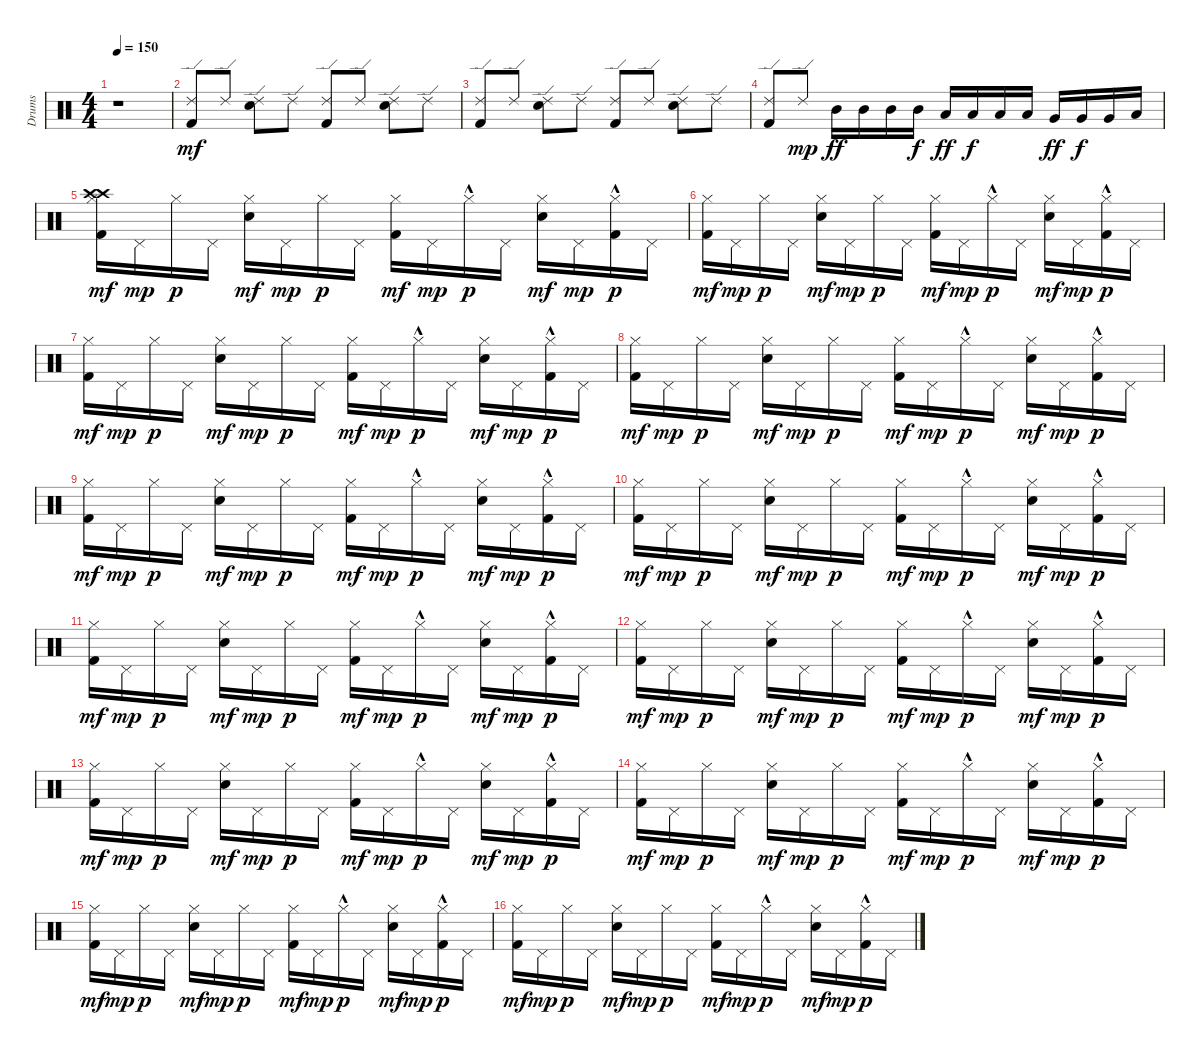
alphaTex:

\track ("Drums" "Drums") {instrument percussion}
\staff {score}
\articulation defaults
\ts (4 4)
\tempo 150
\clef neutral
\ks c
r.1{dy mf} |
("Kick (hit) 2" "Ride (edge) 2").8 "Ride (edge) 2".8 ("Snare (hit) 2" "Ride (edge) 2").8 "Ride (edge) 2".8 ("Kick (hit) 2" "Ride (edge) 2").8 "Ride (edge) 2".8 ("Snare (hit) 2" "Ride (edge) 2").8 "Ride (edge) 2".8 |
("Kick (hit) 2" "Ride (edge) 2").8 "Ride (edge) 2".8 ("Snare (hit) 2" "Ride (edge) 2").8 "Ride (edge) 2".8 ("Kick (hit) 2" "Ride (edge) 2").8 "Ride (edge) 2".8 ("Snare (hit) 2" "Ride (edge) 2").8 "Ride (edge) 2".8 |
("Kick (hit) 2" "Ride (edge) 2").8 "Ride (edge) 2".8{dy mp} "Mid Tom (hit)".16{dy ff} "Mid Tom (hit)".16 "Mid Tom (hit)".16 "Mid Tom (hit)".16{dy f} "Low Tom (hit)".16{dy ff} "Low Tom (hit)".16{dy f} "Low Tom (hit)".16 "Low Tom (hit)".16 "Very Low Tom (hit)".16{dy ff} "Very Low Tom (hit)".16{dy f} "Very Low Tom (hit)".16 "Low Floor Tom (hit)".16 |
("Kick (hit) 2" "Hi-Hat (closed)" "Crash high (hit)" "Crash high (hit)").16{dy mf} "Pedal Hi-Hat (hit)".16{dy mp} "Hi-Hat (closed)".16{dy p} "Pedal Hi-Hat (hit)".16 ("Snare (hit) 2" "Hi-Hat (closed)").16{dy mf} "Pedal Hi-Hat (hit)".16{dy mp} "Hi-Hat (closed)".16{dy p} "Pedal Hi-Hat (hit)".16 ("Kick (hit) 2" "Hi-Hat (closed)").16{dy mf} "Pedal Hi-Hat (hit)".16{dy mp} "Hi-Hat (closed)"{hac}.16{dy p} "Pedal Hi-Hat (hit)".16 ("Snare (hit) 2" "Hi-Hat (closed)").16{dy mf} "Pedal Hi-Hat (hit)".16{dy mp} ("Kick (hit) 2" "Hi-Hat (closed)"{hac}).16{dy p} "Pedal Hi-Hat (hit)".16 |
("Kick (hit) 2" "Hi-Hat (closed)").16{dy mf} "Pedal Hi-Hat (hit)".16{dy mp} "Hi-Hat (closed)".16{dy p} "Pedal Hi-Hat (hit)".16 ("Snare (hit) 2" "Hi-Hat (closed)").16{dy mf} "Pedal Hi-Hat (hit)".16{dy mp} "Hi-Hat (closed)".16{dy p} "Pedal Hi-Hat (hit)".16 ("Kick (hit) 2" "Hi-Hat (closed)").16{dy mf} "Pedal Hi-Hat (hit)".16{dy mp} "Hi-Hat (closed)"{hac}.16{dy p} "Pedal Hi-Hat (hit)".16 ("Snare (hit) 2" "Hi-Hat (closed)").16{dy mf} "Pedal Hi-Hat (hit)".16{dy mp} ("Kick (hit) 2" "Hi-Hat (closed)"{hac}).16{dy p} "Pedal Hi-Hat (hit)".16 |
("Kick (hit) 2" "Hi-Hat (closed)").16{dy mf} "Pedal Hi-Hat (hit)".16{dy mp} "Hi-Hat (closed)".16{dy p} "Pedal Hi-Hat (hit)".16 ("Snare (hit) 2" "Hi-Hat (closed)").16{dy mf} "Pedal Hi-Hat (hit)".16{dy mp} "Hi-Hat (closed)".16{dy p} "Pedal Hi-Hat (hit)".16 ("Kick (hit) 2" "Hi-Hat (closed)").16{dy mf} "Pedal Hi-Hat (hit)".16{dy mp} "Hi-Hat (closed)"{hac}.16{dy p} "Pedal Hi-Hat (hit)".16 ("Snare (hit) 2" "Hi-Hat (closed)").16{dy mf} "Pedal Hi-Hat (hit)".16{dy mp} ("Kick (hit) 2" "Hi-Hat (closed)"{hac}).16{dy p} "Pedal Hi-Hat (hit)".16 |
("Kick (hit) 2" "Hi-Hat (closed)").16{dy mf} "Pedal Hi-Hat (hit)".16{dy mp} "Hi-Hat (closed)".16{dy p} "Pedal Hi-Hat (hit)".16 ("Snare (hit) 2" "Hi-Hat (closed)").16{dy mf} "Pedal Hi-Hat (hit)".16{dy mp} "Hi-Hat (closed)".16{dy p} "Pedal Hi-Hat (hit)".16 ("Kick (hit) 2" "Hi-Hat (closed)").16{dy mf} "Pedal Hi-Hat (hit)".16{dy mp} "Hi-Hat (closed)"{hac}.16{dy p} "Pedal Hi-Hat (hit)".16 ("Snare (hit) 2" "Hi-Hat (closed)").16{dy mf} "Pedal Hi-Hat (hit)".16{dy mp} ("Kick (hit) 2" "Hi-Hat (closed)"{hac}).16{dy p} "Pedal Hi-Hat (hit)".16 |
("Kick (hit) 2" "Hi-Hat (closed)").16{dy mf} "Pedal Hi-Hat (hit)".16{dy mp} "Hi-Hat (closed)".16{dy p} "Pedal Hi-Hat (hit)".16 ("Snare (hit) 2" "Hi-Hat (closed)").16{dy mf} "Pedal Hi-Hat (hit)".16{dy mp} "Hi-Hat (closed)".16{dy p} "Pedal Hi-Hat (hit)".16 ("Kick (hit) 2" "Hi-Hat (closed)").16{dy mf} "Pedal Hi-Hat (hit)".16{dy mp} "Hi-Hat (closed)"{hac}.16{dy p} "Pedal Hi-Hat (hit)".16 ("Snare (hit) 2" "Hi-Hat (closed)").16{dy mf} "Pedal Hi-Hat (hit)".16{dy mp} ("Kick (hit) 2" "Hi-Hat (closed)"{hac}).16{dy p} "Pedal Hi-Hat (hit)".16 |
("Kick (hit) 2" "Hi-Hat (closed)").16{dy mf} "Pedal Hi-Hat (hit)".16{dy mp} "Hi-Hat (closed)".16{dy p} "Pedal Hi-Hat (hit)".16 ("Snare (hit) 2" "Hi-Hat (closed)").16{dy mf} "Pedal Hi-Hat (hit)".16{dy mp} "Hi-Hat (closed)".16{dy p} "Pedal Hi-Hat (hit)".16 ("Kick (hit) 2" "Hi-Hat (closed)").16{dy mf} "Pedal Hi-Hat (hit)".16{dy mp} "Hi-Hat (closed)"{hac}.16{dy p} "Pedal Hi-Hat (hit)".16 ("Snare (hit) 2" "Hi-Hat (closed)").16{dy mf} "Pedal Hi-Hat (hit)".16{dy mp} ("Kick (hit) 2" "Hi-Hat (closed)"{hac}).16{dy p} "Pedal Hi-Hat (hit)".16 |
("Kick (hit) 2" "Hi-Hat (closed)").16{dy mf} "Pedal Hi-Hat (hit)".16{dy mp} "Hi-Hat (closed)".16{dy p} "Pedal Hi-Hat (hit)".16 ("Snare (hit) 2" "Hi-Hat (closed)").16{dy mf} "Pedal Hi-Hat (hit)".16{dy mp} "Hi-Hat (closed)".16{dy p} "Pedal Hi-Hat (hit)".16 ("Kick (hit) 2" "Hi-Hat (closed)").16{dy mf} "Pedal Hi-Hat (hit)".16{dy mp} "Hi-Hat (closed)"{hac}.16{dy p} "Pedal Hi-Hat (hit)".16 ("Snare (hit) 2" "Hi-Hat (closed)").16{dy mf} "Pedal Hi-Hat (hit)".16{dy mp} ("Kick (hit) 2" "Hi-Hat (closed)"{hac}).16{dy p} "Pedal Hi-Hat (hit)".16 |
("Kick (hit) 2" "Hi-Hat (closed)").16{dy mf} "Pedal Hi-Hat (hit)".16{dy mp} "Hi-Hat (closed)".16{dy p} "Pedal Hi-Hat (hit)".16 ("Snare (hit) 2" "Hi-Hat (closed)").16{dy mf} "Pedal Hi-Hat (hit)".16{dy mp} "Hi-Hat (closed)".16{dy p} "Pedal Hi-Hat (hit)".16 ("Kick (hit) 2" "Hi-Hat (closed)").16{dy mf} "Pedal Hi-Hat (hit)".16{dy mp} "Hi-Hat (closed)"{hac}.16{dy p} "Pedal Hi-Hat (hit)".16 ("Snare (hit) 2" "Hi-Hat (closed)").16{dy mf} "Pedal Hi-Hat (hit)".16{dy mp} ("Kick (hit) 2" "Hi-Hat (closed)"{hac}).16{dy p} "Pedal Hi-Hat (hit)".16 |
("Kick (hit) 2" "Hi-Hat (closed)").16{dy mf} "Pedal Hi-Hat (hit)".16{dy mp} "Hi-Hat (closed)".16{dy p} "Pedal Hi-Hat (hit)".16 ("Snare (hit) 2" "Hi-Hat (closed)").16{dy mf} "Pedal Hi-Hat (hit)".16{dy mp} "Hi-Hat (closed)".16{dy p} "Pedal Hi-Hat (hit)".16 ("Kick (hit) 2" "Hi-Hat (closed)").16{dy mf} "Pedal Hi-Hat (hit)".16{dy mp} "Hi-Hat (closed)"{hac}.16{dy p} "Pedal Hi-Hat (hit)".16 ("Snare (hit) 2" "Hi-Hat (closed)").16{dy mf} "Pedal Hi-Hat (hit)".16{dy mp} ("Kick (hit) 2" "Hi-Hat (closed)"{hac}).16{dy p} "Pedal Hi-Hat (hit)".16 |
("Kick (hit) 2" "Hi-Hat (closed)").16{dy mf} "Pedal Hi-Hat (hit)".16{dy mp} "Hi-Hat (closed)".16{dy p} "Pedal Hi-Hat (hit)".16 ("Snare (hit) 2" "Hi-Hat (closed)").16{dy mf} "Pedal Hi-Hat (hit)".16{dy mp} "Hi-Hat (closed)".16{dy p} "Pedal Hi-Hat (hit)".16 ("Kick (hit) 2" "Hi-Hat (closed)").16{dy mf} "Pedal Hi-Hat (hit)".16{dy mp} "Hi-Hat (closed)"{hac}.16{dy p} "Pedal Hi-Hat (hit)".16 ("Snare (hit) 2" "Hi-Hat (closed)").16{dy mf} "Pedal Hi-Hat (hit)".16{dy mp} ("Kick (hit) 2" "Hi-Hat (closed)"{hac}).16{dy p} "Pedal Hi-Hat (hit)".16 |
("Kick (hit) 2" "Hi-Hat (closed)").16{dy mf} "Pedal Hi-Hat (hit)".16{dy mp} "Hi-Hat (closed)".16{dy p} "Pedal Hi-Hat (hit)".16 ("Snare (hit) 2" "Hi-Hat (closed)").16{dy mf} "Pedal Hi-Hat (hit)".16{dy mp} "Hi-Hat (closed)".16{dy p} "Pedal Hi-Hat (hit)".16 ("Kick (hit) 2" "Hi-Hat (closed)").16{dy mf} "Pedal Hi-Hat (hit)".16{dy mp} "Hi-Hat (closed)"{hac}.16{dy p} "Pedal Hi-Hat (hit)".16 ("Snare (hit) 2" "Hi-Hat (closed)").16{dy mf} "Pedal Hi-Hat (hit)".16{dy mp} ("Kick (hit) 2" "Hi-Hat (closed)"{hac}).16{dy p} "Pedal Hi-Hat (hit)".16 |
("Kick (hit) 2" "Hi-Hat (closed)").16{dy mf} "Pedal Hi-Hat (hit)".16{dy mp} "Hi-Hat (closed)".16{dy p} "Pedal Hi-Hat (hit)".16 ("Snare (hit) 2" "Hi-Hat (closed)").16{dy mf} "Pedal Hi-Hat (hit)".16{dy mp} "Hi-Hat (closed)".16{dy p} "Pedal Hi-Hat (hit)".16 ("Kick (hit) 2" "Hi-Hat (closed)").16{dy mf} "Pedal Hi-Hat (hit)".16{dy mp} "Hi-Hat (closed)"{hac}.16{dy p} "Pedal Hi-Hat (hit)".16 ("Snare (hit) 2" "Hi-Hat (closed)").16{dy mf} "Pedal Hi-Hat (hit)".16{dy mp} ("Kick (hit) 2" "Hi-Hat (closed)"{hac}).16{dy p} "Pedal Hi-Hat (hit)".16
